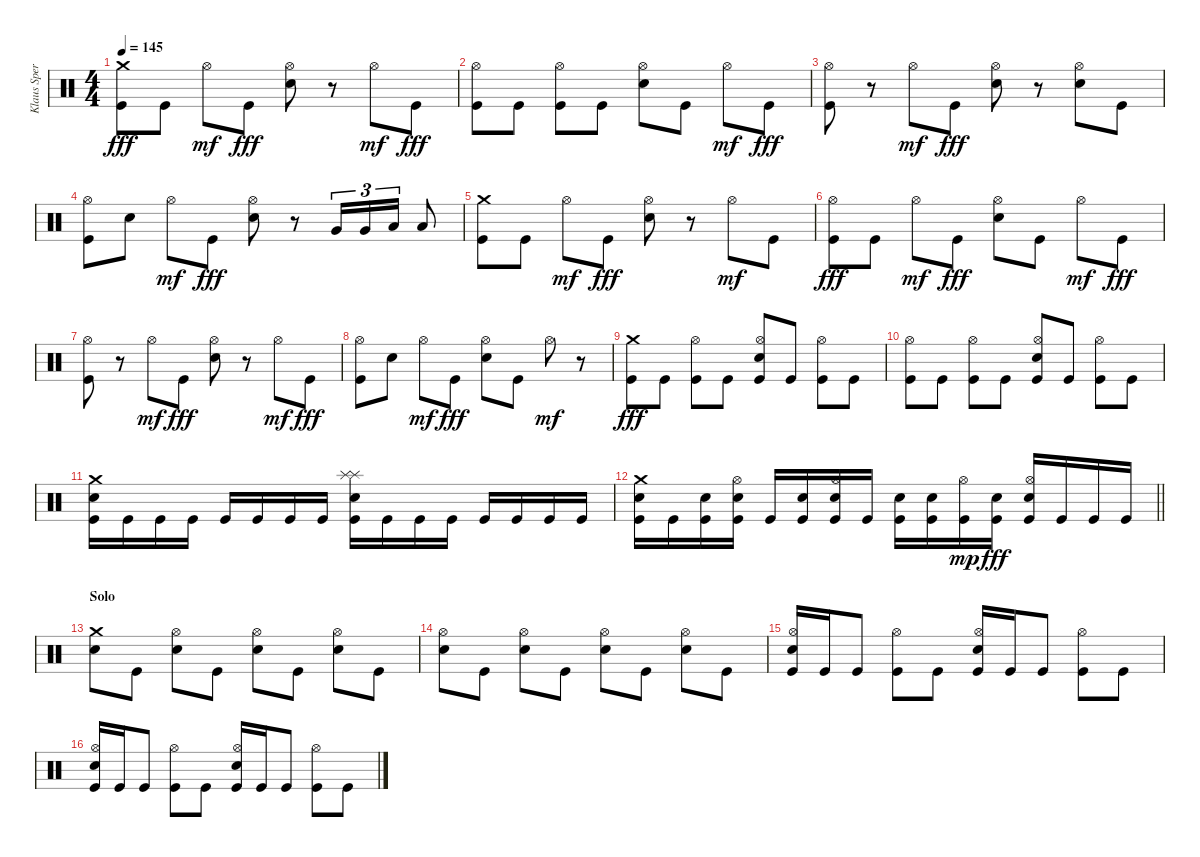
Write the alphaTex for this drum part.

\track ("Klaus Sperling" "Klaus Sper") {instrument percussion}
\staff {score}
\articulation defaults
\ts (4 4)
\tempo 145
\clef neutral
\ks c
("Crash medium (hit)" "Kick (hit)").8{dy fff} "Kick (hit)".8 "Hi-Hat (open)".8{dy mf} "Kick (hit)".8{dy fff} ("Hi-Hat (open)" "Electric Snare (hit)").8 r.8 "Hi-Hat (open)".8{dy mf} "Kick (hit)".8{dy fff} |
("Hi-Hat (open)" "Kick (hit)").8 "Kick (hit)".8 ("Hi-Hat (open)" "Kick (hit)").8 "Kick (hit)".8 ("Hi-Hat (open)" "Electric Snare (hit)").8 "Kick (hit)".8 "Hi-Hat (open)".8{dy mf} "Kick (hit)".8{dy fff} |
("Hi-Hat (open)" "Kick (hit)").8 r.8 "Hi-Hat (open)".8{dy mf} "Kick (hit)".8{dy fff} ("Hi-Hat (open)" "Electric Snare (hit)").8 r.8 ("Hi-Hat (open)" "Electric Snare (hit)").8 "Kick (hit)".8 |
("Hi-Hat (open)" "Kick (hit)").8 "Electric Snare (hit)".8 "Hi-Hat (open)".8{dy mf} "Kick (hit)".8{dy fff} ("Hi-Hat (open)" "Electric Snare (hit)").8 r.8 "Very Low Tom (hit)".16{tu (3 2)} "Very Low Tom (hit)".16{tu (3 2)} "Low Floor Tom (hit)".16{tu (3 2)} "Low Floor Tom (hit)".8 |
("Crash medium (hit)" "Kick (hit)").8 "Kick (hit)".8 "Hi-Hat (open)".8{dy mf} "Kick (hit)".8{dy fff} ("Hi-Hat (open)" "Electric Snare (hit)").8 r.8 "Hi-Hat (open)".8{dy mf} "Kick (hit)".8 |
("Hi-Hat (open)" "Kick (hit)").8{dy fff} "Kick (hit)".8 "Hi-Hat (open)".8{dy mf} "Kick (hit)".8{dy fff} ("Hi-Hat (open)" "Electric Snare (hit)").8 "Kick (hit)".8 "Hi-Hat (open)".8{dy mf} "Kick (hit)".8{dy fff} |
("Hi-Hat (open)" "Kick (hit)").8 r.8 "Hi-Hat (open)".8{dy mf} "Kick (hit)".8{dy fff} ("Hi-Hat (open)" "Electric Snare (hit)").8 r.8 "Hi-Hat (open)".8{dy mf} "Kick (hit)".8{dy fff} |
("Hi-Hat (open)" "Kick (hit)").8 "Electric Snare (hit)".8 "Hi-Hat (open)".8{dy mf} "Kick (hit)".8{dy fff} ("Hi-Hat (open)" "Electric Snare (hit)").8 "Kick (hit)".8 "Hi-Hat (open)".8{dy mf} r.8 |
("Crash medium (hit)" "Kick (hit)").8{dy fff} "Kick (hit)".8 ("Hi-Hat (open)" "Kick (hit)").8 "Kick (hit)".8 ("Hi-Hat (open)" "Electric Snare (hit)" "Kick (hit)").8 "Kick (hit)".8 ("Hi-Hat (open)" "Kick (hit)").8 "Kick (hit)".8 |
("Hi-Hat (open)" "Kick (hit)").8 "Kick (hit)".8 ("Hi-Hat (open)" "Kick (hit)").8 "Kick (hit)".8 ("Hi-Hat (open)" "Electric Snare (hit)" "Kick (hit)").8 "Kick (hit)".8 ("Hi-Hat (open)" "Kick (hit)").8 "Kick (hit)".8 |
("Crash medium (hit)" "Electric Snare (hit)" "Kick (hit)").16 "Kick (hit)".16 "Kick (hit)".16 "Kick (hit)".16 "Kick (hit)".16 "Kick (hit)".16 "Kick (hit)".16 "Kick (hit)".16 ("Splash (hit)" "Splash (hit)" "Electric Snare (hit)" "Kick (hit)").16 "Kick (hit)".16 "Kick (hit)".16 "Kick (hit)".16 "Kick (hit)".16 "Kick (hit)".16 "Kick (hit)".16 "Kick (hit)".16 |
\barLineRight lightlight
("Crash medium (hit)" "Electric Snare (hit)" "Kick (hit)").16 "Kick (hit)".16 ("Electric Snare (hit)" "Kick (hit)").16 ("Hi-Hat (open)" "Electric Snare (hit)" "Kick (hit)").16 "Kick (hit)".16 ("Electric Snare (hit)" "Kick (hit)").16 ("Hi-Hat (open)" "Electric Snare (hit)" "Kick (hit)").16 "Kick (hit)".16 ("Electric Snare (hit)" "Kick (hit)").16 ("Electric Snare (hit)" "Kick (hit)").16 ("Hi-Hat (open)" "Kick (hit)").16{dy mp} ("Electric Snare (hit)" "Kick (hit)").16{dy fff} ("Hi-Hat (open)" "Electric Snare (hit)" "Kick (hit)").16 "Kick (hit)".16 "Kick (hit)".16 "Kick (hit)".16 |
\section ("" "Solo")
("Crash medium (hit)" "Electric Snare (hit)").8 "Kick (hit)".8 ("Hi-Hat (open)" "Electric Snare (hit)").8 "Kick (hit)".8 ("Hi-Hat (open)" "Electric Snare (hit)").8 "Kick (hit)".8 ("Hi-Hat (open)" "Electric Snare (hit)").8 "Kick (hit)".8 |
("Hi-Hat (open)" "Electric Snare (hit)").8 "Kick (hit)".8 ("Hi-Hat (open)" "Electric Snare (hit)").8 "Kick (hit)".8 ("Hi-Hat (open)" "Electric Snare (hit)").8 "Kick (hit)".8 ("Hi-Hat (open)" "Electric Snare (hit)").8 "Kick (hit)".8 |
("Hi-Hat (open)" "Electric Snare (hit)" "Kick (hit)").16 "Kick (hit)".16 "Kick (hit)".8 ("Hi-Hat (open)" "Kick (hit)").8 "Kick (hit)".8 ("Hi-Hat (open)" "Electric Snare (hit)" "Kick (hit)").16 "Kick (hit)".16 "Kick (hit)".8 ("Hi-Hat (open)" "Kick (hit)").8 "Kick (hit)".8 |
("Hi-Hat (open)" "Electric Snare (hit)" "Kick (hit)").16 "Kick (hit)".16 "Kick (hit)".8 ("Hi-Hat (open)" "Kick (hit)").8 "Kick (hit)".8 ("Hi-Hat (open)" "Electric Snare (hit)" "Kick (hit)").16 "Kick (hit)".16 "Kick (hit)".8 ("Hi-Hat (open)" "Kick (hit)").8 "Kick (hit)".8
